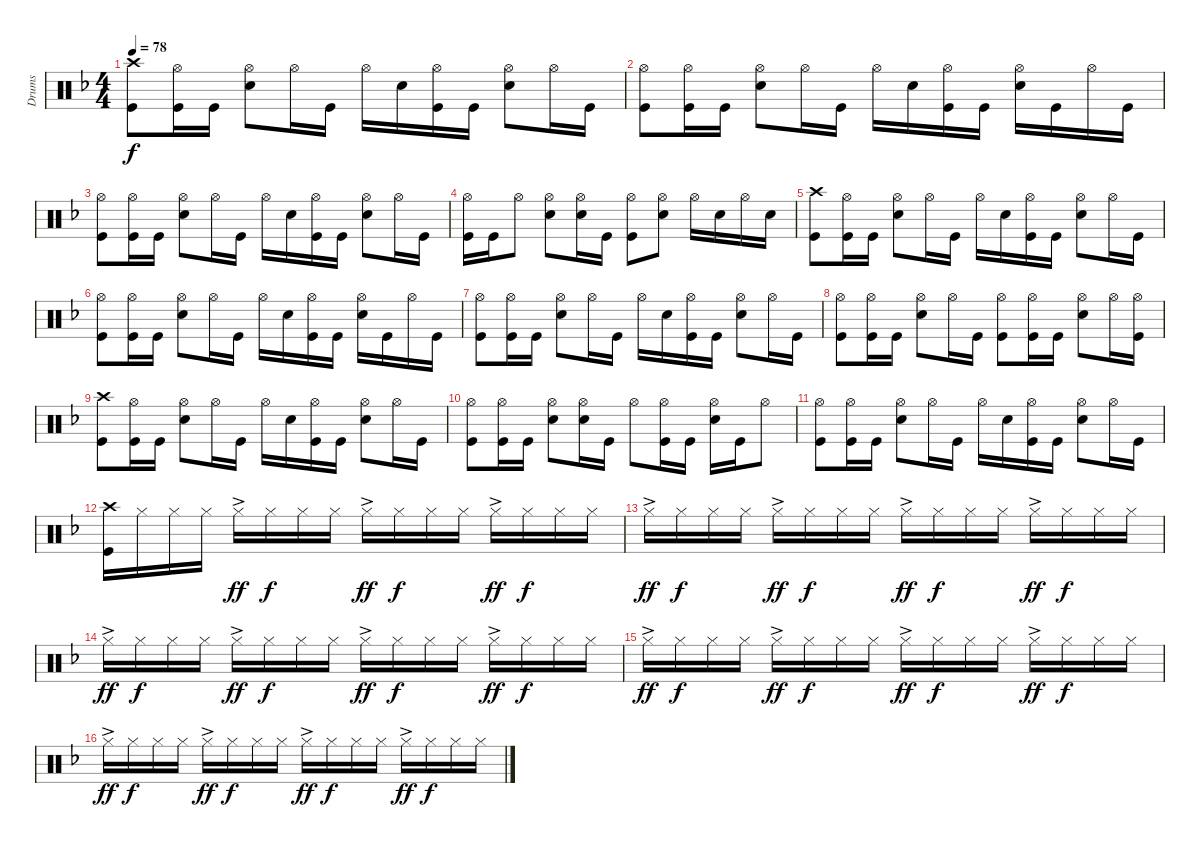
\track ("Drums" "Drums") {instrument percussion}
\staff {score}
\articulation defaults
\ts (4 4)
\tempo 78
\clef neutral
\ks dminor
("Crash high (hit)" "Kick (hit)").8{dy f} ("Hi-Hat (open)" "Kick (hit)").16 "Kick (hit)".16 ("Hi-Hat (open)" "Snare (hit) 2").8 "Hi-Hat (open)".16 "Kick (hit)".16 "Hi-Hat (open)".16 "Snare (hit) 2".16 ("Hi-Hat (open)" "Kick (hit)").16 "Kick (hit)".16 ("Hi-Hat (open)" "Snare (hit) 2").8 "Hi-Hat (open)".16 "Kick (hit)".16 |
("Hi-Hat (open)" "Kick (hit)").8 ("Hi-Hat (open)" "Kick (hit)").16 "Kick (hit)".16 ("Hi-Hat (open)" "Snare (hit) 2").8 "Hi-Hat (open)".16 "Kick (hit)".16 "Hi-Hat (open)".16 "Snare (hit) 2".16 ("Hi-Hat (open)" "Kick (hit)").16 "Kick (hit)".16 ("Hi-Hat (open)" "Snare (hit) 2").16 "Kick (hit)".16 "Hi-Hat (open)".16 "Kick (hit)".16 |
("Hi-Hat (open)" "Kick (hit)").8 ("Hi-Hat (open)" "Kick (hit)").16 "Kick (hit)".16 ("Hi-Hat (open)" "Snare (hit) 2").8 "Hi-Hat (open)".16 "Kick (hit)".16 "Hi-Hat (open)".16 "Snare (hit) 2".16 ("Hi-Hat (open)" "Kick (hit)").16 "Kick (hit)".16 ("Hi-Hat (open)" "Snare (hit) 2").8 "Hi-Hat (open)".16 "Kick (hit)".16 |
("Hi-Hat (open)" "Kick (hit)").16 "Kick (hit)".16 "Hi-Hat (open)".8 ("Hi-Hat (open)" "Snare (hit) 2").8 ("Hi-Hat (open)" "Snare (hit) 2").16 "Kick (hit)".16 ("Hi-Hat (open)" "Kick (hit)").8 ("Hi-Hat (open)" "Snare (hit) 2").8 "Hi-Hat (open)".16 "Snare (hit) 2".16 "Hi-Hat (open)".16 "Snare (hit) 2".16 |
("Crash high (hit)" "Kick (hit)").8 ("Hi-Hat (open)" "Kick (hit)").16 "Kick (hit)".16 ("Hi-Hat (open)" "Snare (hit) 2").8 "Hi-Hat (open)".16 "Kick (hit)".16 "Hi-Hat (open)".16 "Snare (hit) 2".16 ("Hi-Hat (open)" "Kick (hit)").16 "Kick (hit)".16 ("Hi-Hat (open)" "Snare (hit) 2").8 "Hi-Hat (open)".16 "Kick (hit)".16 |
("Hi-Hat (open)" "Kick (hit)").8 ("Hi-Hat (open)" "Kick (hit)").16 "Kick (hit)".16 ("Hi-Hat (open)" "Snare (hit) 2").8 "Hi-Hat (open)".16 "Kick (hit)".16 "Hi-Hat (open)".16 "Snare (hit) 2".16 ("Hi-Hat (open)" "Kick (hit)").16 "Kick (hit)".16 ("Hi-Hat (open)" "Snare (hit) 2").16 "Kick (hit)".16 "Hi-Hat (open)".16 "Kick (hit)".16 |
("Hi-Hat (open)" "Kick (hit)").8 ("Hi-Hat (open)" "Kick (hit)").16 "Kick (hit)".16 ("Hi-Hat (open)" "Snare (hit) 2").8 "Hi-Hat (open)".16 "Kick (hit)".16 "Hi-Hat (open)".16 "Snare (hit) 2".16 ("Hi-Hat (open)" "Kick (hit)").16 "Kick (hit)".16 ("Hi-Hat (open)" "Snare (hit) 2").8 "Hi-Hat (open)".16 "Kick (hit)".16 |
("Hi-Hat (open)" "Kick (hit)").8 ("Hi-Hat (open)" "Kick (hit)").16 "Kick (hit)".16 ("Hi-Hat (open)" "Snare (hit) 2").8 "Hi-Hat (open)".16 "Kick (hit)".16 ("Hi-Hat (open)" "Kick (hit)").8 ("Hi-Hat (open)" "Kick (hit)").16 "Kick (hit)".16 ("Hi-Hat (open)" "Snare (hit) 2").8 "Hi-Hat (open)".16 ("Hi-Hat (open)" "Kick (hit)").16 |
("Crash high (hit)" "Kick (hit)").8 ("Hi-Hat (open)" "Kick (hit)").16 "Kick (hit)".16 ("Hi-Hat (open)" "Snare (hit) 2").8 "Hi-Hat (open)".16 "Kick (hit)".16 "Hi-Hat (open)".16 "Snare (hit) 2".16 ("Hi-Hat (open)" "Kick (hit)").16 "Kick (hit)".16 ("Hi-Hat (open)" "Snare (hit) 2").8 "Hi-Hat (open)".16 "Kick (hit)".16 |
("Hi-Hat (open)" "Kick (hit)").8 ("Hi-Hat (open)" "Kick (hit)").16 "Kick (hit)".16 ("Hi-Hat (open)" "Snare (hit) 2").8 ("Hi-Hat (open)" "Snare (hit) 2").16 "Kick (hit)".16 "Hi-Hat (open)".8 ("Hi-Hat (open)" "Kick (hit)").16 "Kick (hit)".16 ("Hi-Hat (open)" "Snare (hit) 2").16 "Kick (hit)".16 "Hi-Hat (open)".8 |
("Hi-Hat (open)" "Kick (hit)").8 ("Hi-Hat (open)" "Kick (hit)").16 "Kick (hit)".16 ("Hi-Hat (open)" "Snare (hit) 2").8 "Hi-Hat (open)".16 "Kick (hit)".16 "Hi-Hat (open)".16 "Snare (hit) 2".16 ("Hi-Hat (open)" "Kick (hit)").16 "Kick (hit)".16 ("Hi-Hat (open)" "Snare (hit) 2").8 "Hi-Hat (open)".16 "Kick (hit)".16 |
("Crash high (hit)" "Kick (hit)").16 "Hi-Hat (closed)".16 "Hi-Hat (closed)".16 "Hi-Hat (closed)".16 "Hi-Hat (closed)"{ac}.16{dy ff} "Hi-Hat (closed)".16{dy f} "Hi-Hat (closed)".16 "Hi-Hat (closed)".16 "Hi-Hat (closed)"{ac}.16{dy ff} "Hi-Hat (closed)".16{dy f} "Hi-Hat (closed)".16 "Hi-Hat (closed)".16 "Hi-Hat (closed)"{ac}.16{dy ff} "Hi-Hat (closed)".16{dy f} "Hi-Hat (closed)".16 "Hi-Hat (closed)".16 |
"Hi-Hat (closed)"{ac}.16{dy ff} "Hi-Hat (closed)".16{dy f} "Hi-Hat (closed)".16 "Hi-Hat (closed)".16 "Hi-Hat (closed)"{ac}.16{dy ff} "Hi-Hat (closed)".16{dy f} "Hi-Hat (closed)".16 "Hi-Hat (closed)".16 "Hi-Hat (closed)"{ac}.16{dy ff} "Hi-Hat (closed)".16{dy f} "Hi-Hat (closed)".16 "Hi-Hat (closed)".16 "Hi-Hat (closed)"{ac}.16{dy ff} "Hi-Hat (closed)".16{dy f} "Hi-Hat (closed)".16 "Hi-Hat (closed)".16 |
"Hi-Hat (closed)"{ac}.16{dy ff} "Hi-Hat (closed)".16{dy f} "Hi-Hat (closed)".16 "Hi-Hat (closed)".16 "Hi-Hat (closed)"{ac}.16{dy ff} "Hi-Hat (closed)".16{dy f} "Hi-Hat (closed)".16 "Hi-Hat (closed)".16 "Hi-Hat (closed)"{ac}.16{dy ff} "Hi-Hat (closed)".16{dy f} "Hi-Hat (closed)".16 "Hi-Hat (closed)".16 "Hi-Hat (closed)"{ac}.16{dy ff} "Hi-Hat (closed)".16{dy f} "Hi-Hat (closed)".16 "Hi-Hat (closed)".16 |
"Hi-Hat (closed)"{ac}.16{dy ff} "Hi-Hat (closed)".16{dy f} "Hi-Hat (closed)".16 "Hi-Hat (closed)".16 "Hi-Hat (closed)"{ac}.16{dy ff} "Hi-Hat (closed)".16{dy f} "Hi-Hat (closed)".16 "Hi-Hat (closed)".16 "Hi-Hat (closed)"{ac}.16{dy ff} "Hi-Hat (closed)".16{dy f} "Hi-Hat (closed)".16 "Hi-Hat (closed)".16 "Hi-Hat (closed)"{ac}.16{dy ff} "Hi-Hat (closed)".16{dy f} "Hi-Hat (closed)".16 "Hi-Hat (closed)".16 |
"Hi-Hat (closed)"{ac}.16{dy ff} "Hi-Hat (closed)".16{dy f} "Hi-Hat (closed)".16 "Hi-Hat (closed)".16 "Hi-Hat (closed)"{ac}.16{dy ff} "Hi-Hat (closed)".16{dy f} "Hi-Hat (closed)".16 "Hi-Hat (closed)".16 "Hi-Hat (closed)"{ac}.16{dy ff} "Hi-Hat (closed)".16{dy f} "Hi-Hat (closed)".16 "Hi-Hat (closed)".16 "Hi-Hat (closed)"{ac}.16{dy ff} "Hi-Hat (closed)".16{dy f} "Hi-Hat (closed)".16 "Hi-Hat (closed)".16
